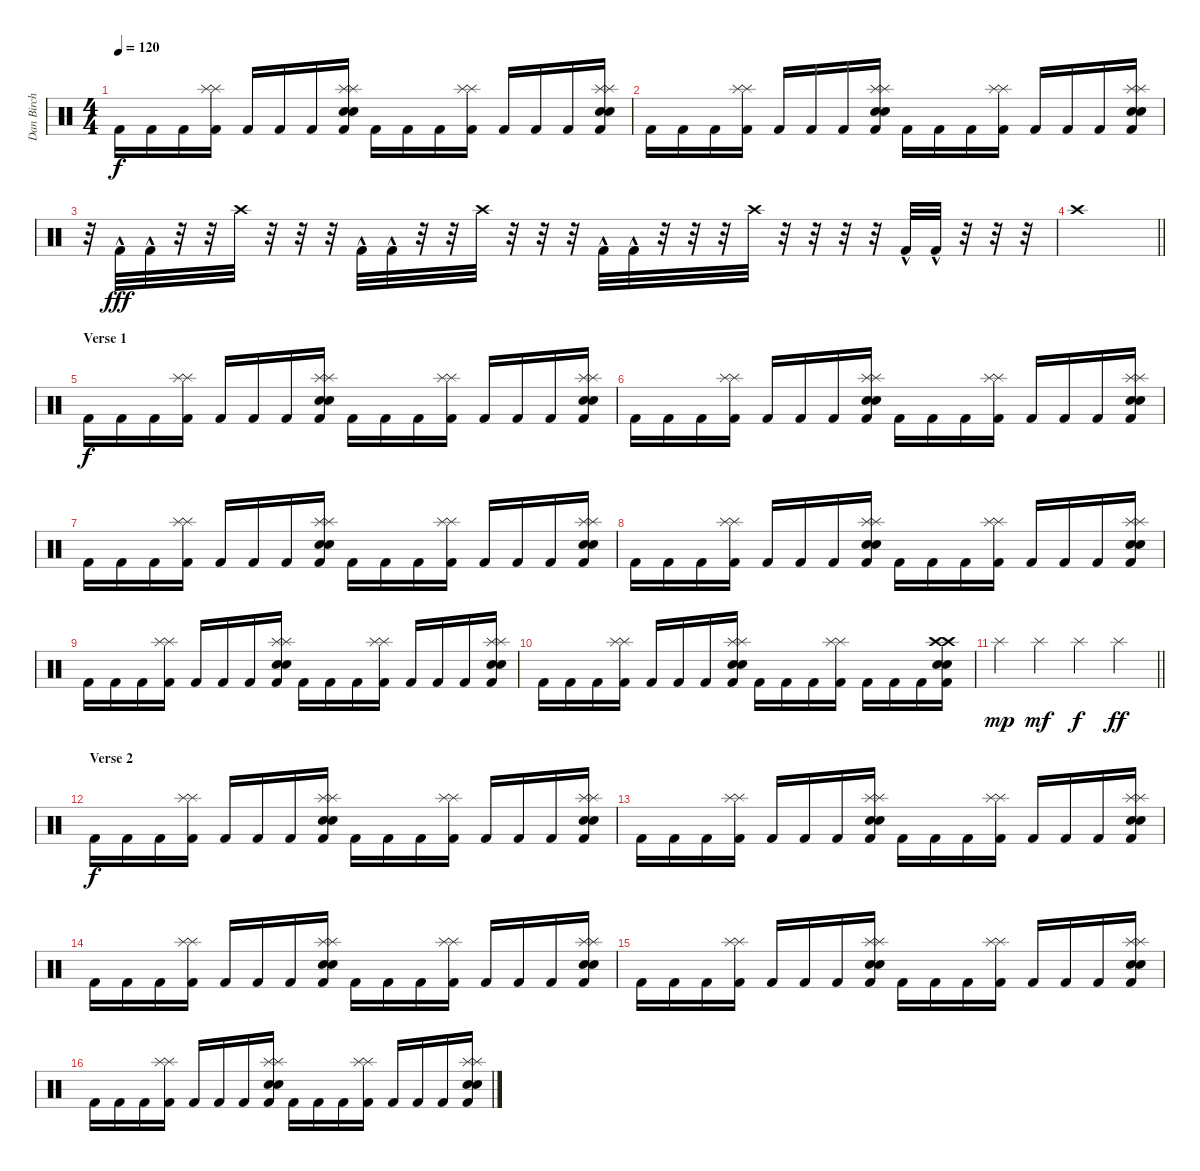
\track ("Dan Birch" "Dan Birch") {instrument percussion}
\staff {score}
\articulation defaults
\ts (4 4)
\tempo 120
\clef neutral
\ks c "Kick (hit) 2".16{dy f} "Kick (hit) 2".16 "Kick (hit) 2".16
("Splash (hit)" "Splash (hit)" "Kick (hit) 2").16 "Kick (hit) 2".16 "Kick (hit) 2".16 "Kick (hit) 2".16 ("Splash (hit)" "Splash (hit)" "Kick (hit) 2" "Snare (hit) 2" "Snare (hit) 2").16 "Kick (hit) 2".16 "Kick (hit) 2".16 "Kick (hit) 2".16 ("Splash (hit)" "Splash (hit)" "Kick (hit) 2").16 "Kick (hit) 2".16 "Kick (hit) 2".16 "Kick (hit) 2".16 ("Splash (hit)" "Splash (hit)" "Kick (hit) 2" "Snare (hit) 2" "Snare (hit) 2").16 |
"Kick (hit) 2".16 "Kick (hit) 2".16 "Kick (hit) 2".16 ("Splash (hit)" "Splash (hit)" "Kick (hit) 2").16 "Kick (hit) 2".16 "Kick (hit) 2".16 "Kick (hit) 2".16 ("Splash (hit)" "Splash (hit)" "Kick (hit) 2" "Snare (hit) 2" "Snare (hit) 2").16 "Kick (hit) 2".16 "Kick (hit) 2".16 "Kick (hit) 2".16 ("Splash (hit)" "Splash (hit)" "Kick (hit) 2").16 "Kick (hit) 2".16 "Kick (hit) 2".16 "Kick (hit) 2".16 ("Splash (hit)" "Splash (hit)" "Kick (hit) 2" "Snare (hit) 2" "Snare (hit) 2").16 |
r.32 "Kick (hit) 2"{hac}.32{dy fff} "Kick (hit) 2"{hac}.32 r.32 r.32 "Crash high (hit)".32 r.32 r.32 r.32 "Kick (hit) 2"{hac}.32 "Kick (hit) 2"{hac}.32 r.32 r.32 "Crash high (hit)".32 r.32 r.32 r.32 "Kick (hit) 2"{hac}.32 "Kick (hit) 2"{hac}.32 r.32 r.32 r.32 "Crash high (hit)".32 r.32 r.32 r.32 r.32 "Kick (hit) 2"{hac}.32 "Kick (hit) 2"{hac}.32 r.32 r.32 r.32 |
\barLineRight lightlight "Crash high (hit)".1
|
\section ("" "Verse 1")
"Kick (hit) 2".16{dy f} "Kick (hit) 2".16 "Kick (hit) 2".16 ("Splash (hit)" "Splash (hit)" "Kick (hit) 2").16 "Kick (hit) 2".16 "Kick (hit) 2".16 "Kick (hit) 2".16 ("Splash (hit)" "Splash (hit)" "Kick (hit) 2" "Snare (hit) 2" "Snare (hit) 2").16 "Kick (hit) 2".16 "Kick (hit) 2".16 "Kick (hit) 2".16 ("Splash (hit)" "Splash (hit)" "Kick (hit) 2").16 "Kick (hit) 2".16 "Kick (hit) 2".16 "Kick (hit) 2".16 ("Splash (hit)" "Splash (hit)" "Kick (hit) 2" "Snare (hit) 2" "Snare (hit) 2").16 |
"Kick (hit) 2".16 "Kick (hit) 2".16 "Kick (hit) 2".16 ("Splash (hit)" "Splash (hit)" "Kick (hit) 2").16 "Kick (hit) 2".16 "Kick (hit) 2".16 "Kick (hit) 2".16 ("Splash (hit)" "Splash (hit)" "Kick (hit) 2" "Snare (hit) 2" "Snare (hit) 2").16 "Kick (hit) 2".16 "Kick (hit) 2".16 "Kick (hit) 2".16 ("Splash (hit)" "Splash (hit)" "Kick (hit) 2").16 "Kick (hit) 2".16 "Kick (hit) 2".16 "Kick (hit) 2".16 ("Splash (hit)" "Splash (hit)" "Kick (hit) 2" "Snare (hit) 2" "Snare (hit) 2").16 |
"Kick (hit) 2".16 "Kick (hit) 2".16 "Kick (hit) 2".16 ("Splash (hit)" "Splash (hit)" "Kick (hit) 2").16 "Kick (hit) 2".16 "Kick (hit) 2".16 "Kick (hit) 2".16 ("Splash (hit)" "Splash (hit)" "Kick (hit) 2" "Snare (hit) 2" "Snare (hit) 2").16 "Kick (hit) 2".16 "Kick (hit) 2".16 "Kick (hit) 2".16 ("Splash (hit)" "Splash (hit)" "Kick (hit) 2").16 "Kick (hit) 2".16 "Kick (hit) 2".16 "Kick (hit) 2".16 ("Splash (hit)" "Splash (hit)" "Kick (hit) 2" "Snare (hit) 2" "Snare (hit) 2").16 |
"Kick (hit) 2".16 "Kick (hit) 2".16 "Kick (hit) 2".16 ("Splash (hit)" "Splash (hit)" "Kick (hit) 2").16 "Kick (hit) 2".16 "Kick (hit) 2".16 "Kick (hit) 2".16 ("Splash (hit)" "Splash (hit)" "Kick (hit) 2" "Snare (hit) 2" "Snare (hit) 2").16 "Kick (hit) 2".16 "Kick (hit) 2".16 "Kick (hit) 2".16 ("Splash (hit)" "Splash (hit)" "Kick (hit) 2").16 "Kick (hit) 2".16 "Kick (hit) 2".16 "Kick (hit) 2".16 ("Splash (hit)" "Splash (hit)" "Kick (hit) 2" "Snare (hit) 2" "Snare (hit) 2").16 |
"Kick (hit) 2".16 "Kick (hit) 2".16 "Kick (hit) 2".16 ("Splash (hit)" "Splash (hit)" "Kick (hit) 2").16 "Kick (hit) 2".16 "Kick (hit) 2".16 "Kick (hit) 2".16 ("Splash (hit)" "Splash (hit)" "Kick (hit) 2" "Snare (hit) 2" "Snare (hit) 2").16 "Kick (hit) 2".16 "Kick (hit) 2".16 "Kick (hit) 2".16 ("Splash (hit)" "Splash (hit)" "Kick (hit) 2").16 "Kick (hit) 2".16 "Kick (hit) 2".16 "Kick (hit) 2".16 ("Splash (hit)" "Splash (hit)" "Kick (hit) 2" "Snare (hit) 2" "Snare (hit) 2").16 |
"Kick (hit) 2".16 "Kick (hit) 2".16 "Kick (hit) 2".16 ("Splash (hit)" "Splash (hit)" "Kick (hit) 2").16 "Kick (hit) 2".16 "Kick (hit) 2".16 "Kick (hit) 2".16 ("Splash (hit)" "Splash (hit)" "Kick (hit) 2" "Snare (hit) 2" "Snare (hit) 2").16 "Kick (hit) 2".16 "Kick (hit) 2".16 "Kick (hit) 2".16 ("Splash (hit)" "Splash (hit)" "Kick (hit) 2").16 "Kick (hit) 2".16 "Kick (hit) 2".16 "Kick (hit) 2".16 ("Crash high (hit)" "Crash high (hit)" "Kick (hit) 2" "Snare (hit) 2" "Snare (hit) 2").16 |
\barLineRight lightlight "Splash (hit)".4{dy mp} "Splash (hit)".4{dy mf} "Splash (hit)".4{dy f} "Splash (hit)".4{dy ff}
|
\section ("" "Verse 2")
"Kick (hit) 2".16{dy f} "Kick (hit) 2".16 "Kick (hit) 2".16 ("Splash (hit)" "Splash (hit)" "Kick (hit) 2").16 "Kick (hit) 2".16 "Kick (hit) 2".16 "Kick (hit) 2".16 ("Splash (hit)" "Splash (hit)" "Kick (hit) 2" "Snare (hit) 2" "Snare (hit) 2").16 "Kick (hit) 2".16 "Kick (hit) 2".16 "Kick (hit) 2".16 ("Splash (hit)" "Splash (hit)" "Kick (hit) 2").16 "Kick (hit) 2".16 "Kick (hit) 2".16 "Kick (hit) 2".16 ("Splash (hit)" "Splash (hit)" "Kick (hit) 2" "Snare (hit) 2" "Snare (hit) 2").16 |
"Kick (hit) 2".16 "Kick (hit) 2".16 "Kick (hit) 2".16 ("Splash (hit)" "Splash (hit)" "Kick (hit) 2").16 "Kick (hit) 2".16 "Kick (hit) 2".16 "Kick (hit) 2".16 ("Splash (hit)" "Splash (hit)" "Kick (hit) 2" "Snare (hit) 2" "Snare (hit) 2").16 "Kick (hit) 2".16 "Kick (hit) 2".16 "Kick (hit) 2".16 ("Splash (hit)" "Splash (hit)" "Kick (hit) 2").16 "Kick (hit) 2".16 "Kick (hit) 2".16 "Kick (hit) 2".16 ("Splash (hit)" "Splash (hit)" "Kick (hit) 2" "Snare (hit) 2" "Snare (hit) 2").16 |
"Kick (hit) 2".16 "Kick (hit) 2".16 "Kick (hit) 2".16 ("Splash (hit)" "Splash (hit)" "Kick (hit) 2").16 "Kick (hit) 2".16 "Kick (hit) 2".16 "Kick (hit) 2".16 ("Splash (hit)" "Splash (hit)" "Kick (hit) 2" "Snare (hit) 2" "Snare (hit) 2").16 "Kick (hit) 2".16 "Kick (hit) 2".16 "Kick (hit) 2".16 ("Splash (hit)" "Splash (hit)" "Kick (hit) 2").16 "Kick (hit) 2".16 "Kick (hit) 2".16 "Kick (hit) 2".16 ("Splash (hit)" "Splash (hit)" "Kick (hit) 2" "Snare (hit) 2" "Snare (hit) 2").16 |
"Kick (hit) 2".16 "Kick (hit) 2".16 "Kick (hit) 2".16 ("Splash (hit)" "Splash (hit)" "Kick (hit) 2").16 "Kick (hit) 2".16 "Kick (hit) 2".16 "Kick (hit) 2".16 ("Splash (hit)" "Splash (hit)" "Kick (hit) 2" "Snare (hit) 2" "Snare (hit) 2").16 "Kick (hit) 2".16 "Kick (hit) 2".16 "Kick (hit) 2".16 ("Splash (hit)" "Splash (hit)" "Kick (hit) 2").16 "Kick (hit) 2".16 "Kick (hit) 2".16 "Kick (hit) 2".16 ("Splash (hit)" "Splash (hit)" "Kick (hit) 2" "Snare (hit) 2" "Snare (hit) 2").16 |
"Kick (hit) 2".16 "Kick (hit) 2".16 "Kick (hit) 2".16 ("Splash (hit)" "Splash (hit)" "Kick (hit) 2").16 "Kick (hit) 2".16 "Kick (hit) 2".16 "Kick (hit) 2".16 ("Splash (hit)" "Splash (hit)" "Kick (hit) 2" "Snare (hit) 2" "Snare (hit) 2").16 "Kick (hit) 2".16 "Kick (hit) 2".16 "Kick (hit) 2".16 ("Splash (hit)" "Splash (hit)" "Kick (hit) 2").16 "Kick (hit) 2".16 "Kick (hit) 2".16 "Kick (hit) 2".16 ("Splash (hit)" "Splash (hit)" "Kick (hit) 2" "Snare (hit) 2" "Snare (hit) 2").16
